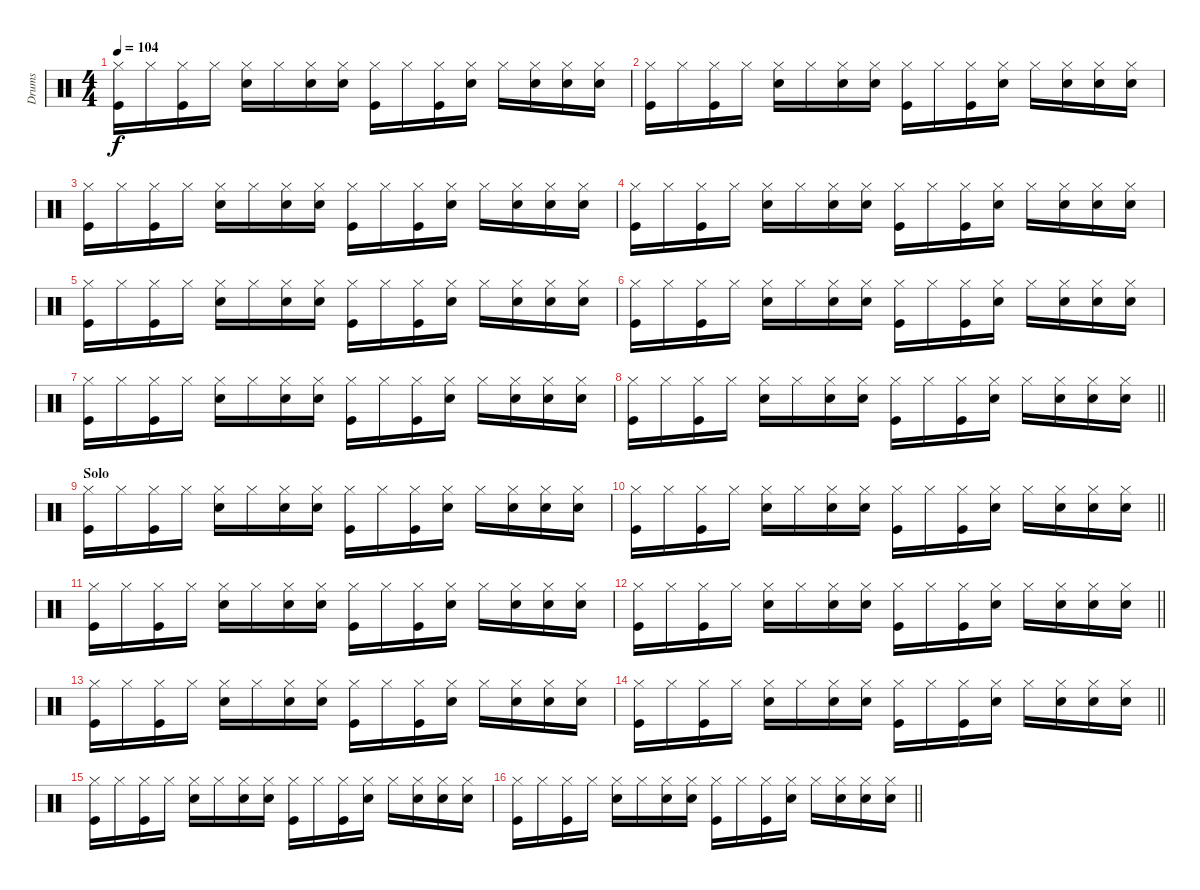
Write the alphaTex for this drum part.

\track ("Drums" "Drums") {instrument percussion}
\staff {score}
\articulation defaults
\ts (4 4)
\tempo 104
\clef neutral
\ks c
("Hi-Hat (closed)" "Kick (hit)").16{dy f} "Hi-Hat (closed)".16 ("Hi-Hat (closed)" "Kick (hit)").16 "Hi-Hat (closed)".16 ("Hi-Hat (closed)" "Electric Snare (hit)").16 "Hi-Hat (closed)".16 ("Hi-Hat (closed)" "Electric Snare (hit)").16 ("Hi-Hat (closed)" "Electric Snare (hit)").16 ("Hi-Hat (closed)" "Kick (hit)").16 "Hi-Hat (closed)".16 ("Hi-Hat (closed)" "Kick (hit)").16 ("Hi-Hat (closed)" "Electric Snare (hit)").16 "Hi-Hat (closed)".16 ("Hi-Hat (closed)" "Electric Snare (hit)").16 ("Hi-Hat (closed)" "Electric Snare (hit)").16 ("Hi-Hat (closed)" "Electric Snare (hit)").16 |
("Hi-Hat (closed)" "Kick (hit)").16 "Hi-Hat (closed)".16 ("Hi-Hat (closed)" "Kick (hit)").16 "Hi-Hat (closed)".16 ("Hi-Hat (closed)" "Electric Snare (hit)").16 "Hi-Hat (closed)".16 ("Hi-Hat (closed)" "Electric Snare (hit)").16 ("Hi-Hat (closed)" "Electric Snare (hit)").16 ("Hi-Hat (closed)" "Kick (hit)").16 "Hi-Hat (closed)".16 ("Hi-Hat (closed)" "Kick (hit)").16 ("Hi-Hat (closed)" "Electric Snare (hit)").16 "Hi-Hat (closed)".16 ("Hi-Hat (closed)" "Electric Snare (hit)").16 ("Hi-Hat (closed)" "Electric Snare (hit)").16 ("Hi-Hat (closed)" "Electric Snare (hit)").16 |
("Hi-Hat (closed)" "Kick (hit)").16 "Hi-Hat (closed)".16 ("Hi-Hat (closed)" "Kick (hit)").16 "Hi-Hat (closed)".16 ("Hi-Hat (closed)" "Electric Snare (hit)").16 "Hi-Hat (closed)".16 ("Hi-Hat (closed)" "Electric Snare (hit)").16 ("Hi-Hat (closed)" "Electric Snare (hit)").16 ("Hi-Hat (closed)" "Kick (hit)").16 "Hi-Hat (closed)".16 ("Hi-Hat (closed)" "Kick (hit)").16 ("Hi-Hat (closed)" "Electric Snare (hit)").16 "Hi-Hat (closed)".16 ("Hi-Hat (closed)" "Electric Snare (hit)").16 ("Hi-Hat (closed)" "Electric Snare (hit)").16 ("Hi-Hat (closed)" "Electric Snare (hit)").16 |
("Hi-Hat (closed)" "Kick (hit)").16 "Hi-Hat (closed)".16 ("Hi-Hat (closed)" "Kick (hit)").16 "Hi-Hat (closed)".16 ("Hi-Hat (closed)" "Electric Snare (hit)").16 "Hi-Hat (closed)".16 ("Hi-Hat (closed)" "Electric Snare (hit)").16 ("Hi-Hat (closed)" "Electric Snare (hit)").16 ("Hi-Hat (closed)" "Kick (hit)").16 "Hi-Hat (closed)".16 ("Hi-Hat (closed)" "Kick (hit)").16 ("Hi-Hat (closed)" "Electric Snare (hit)").16 "Hi-Hat (closed)".16 ("Hi-Hat (closed)" "Electric Snare (hit)").16 ("Hi-Hat (closed)" "Electric Snare (hit)").16 ("Hi-Hat (closed)" "Electric Snare (hit)").16 |
("Hi-Hat (closed)" "Kick (hit)").16 "Hi-Hat (closed)".16 ("Hi-Hat (closed)" "Kick (hit)").16 "Hi-Hat (closed)".16 ("Hi-Hat (closed)" "Electric Snare (hit)").16 "Hi-Hat (closed)".16 ("Hi-Hat (closed)" "Electric Snare (hit)").16 ("Hi-Hat (closed)" "Electric Snare (hit)").16 ("Hi-Hat (closed)" "Kick (hit)").16 "Hi-Hat (closed)".16 ("Hi-Hat (closed)" "Kick (hit)").16 ("Hi-Hat (closed)" "Electric Snare (hit)").16 "Hi-Hat (closed)".16 ("Hi-Hat (closed)" "Electric Snare (hit)").16 ("Hi-Hat (closed)" "Electric Snare (hit)").16 ("Hi-Hat (closed)" "Electric Snare (hit)").16 |
("Hi-Hat (closed)" "Kick (hit)").16 "Hi-Hat (closed)".16 ("Hi-Hat (closed)" "Kick (hit)").16 "Hi-Hat (closed)".16 ("Hi-Hat (closed)" "Electric Snare (hit)").16 "Hi-Hat (closed)".16 ("Hi-Hat (closed)" "Electric Snare (hit)").16 ("Hi-Hat (closed)" "Electric Snare (hit)").16 ("Hi-Hat (closed)" "Kick (hit)").16 "Hi-Hat (closed)".16 ("Hi-Hat (closed)" "Kick (hit)").16 ("Hi-Hat (closed)" "Electric Snare (hit)").16 "Hi-Hat (closed)".16 ("Hi-Hat (closed)" "Electric Snare (hit)").16 ("Hi-Hat (closed)" "Electric Snare (hit)").16 ("Hi-Hat (closed)" "Electric Snare (hit)").16 |
("Hi-Hat (closed)" "Kick (hit)").16 "Hi-Hat (closed)".16 ("Hi-Hat (closed)" "Kick (hit)").16 "Hi-Hat (closed)".16 ("Hi-Hat (closed)" "Electric Snare (hit)").16 "Hi-Hat (closed)".16 ("Hi-Hat (closed)" "Electric Snare (hit)").16 ("Hi-Hat (closed)" "Electric Snare (hit)").16 ("Hi-Hat (closed)" "Kick (hit)").16 "Hi-Hat (closed)".16 ("Hi-Hat (closed)" "Kick (hit)").16 ("Hi-Hat (closed)" "Electric Snare (hit)").16 "Hi-Hat (closed)".16 ("Hi-Hat (closed)" "Electric Snare (hit)").16 ("Hi-Hat (closed)" "Electric Snare (hit)").16 ("Hi-Hat (closed)" "Electric Snare (hit)").16 |
\barLineRight lightlight
("Hi-Hat (closed)" "Kick (hit)").16 "Hi-Hat (closed)".16 ("Hi-Hat (closed)" "Kick (hit)").16 "Hi-Hat (closed)".16 ("Hi-Hat (closed)" "Electric Snare (hit)").16 "Hi-Hat (closed)".16 ("Hi-Hat (closed)" "Electric Snare (hit)").16 ("Hi-Hat (closed)" "Electric Snare (hit)").16 ("Hi-Hat (closed)" "Kick (hit)").16 "Hi-Hat (closed)".16 ("Hi-Hat (closed)" "Kick (hit)").16 ("Hi-Hat (closed)" "Electric Snare (hit)").16 "Hi-Hat (closed)".16 ("Hi-Hat (closed)" "Electric Snare (hit)").16 ("Hi-Hat (closed)" "Electric Snare (hit)").16 ("Hi-Hat (closed)" "Electric Snare (hit)").16 |
\section ("" "Solo")
("Hi-Hat (closed)" "Kick (hit)").16 "Hi-Hat (closed)".16 ("Hi-Hat (closed)" "Kick (hit)").16 "Hi-Hat (closed)".16 ("Hi-Hat (closed)" "Electric Snare (hit)").16 "Hi-Hat (closed)".16 ("Hi-Hat (closed)" "Electric Snare (hit)").16 ("Hi-Hat (closed)" "Electric Snare (hit)").16 ("Hi-Hat (closed)" "Kick (hit)").16 "Hi-Hat (closed)".16 ("Hi-Hat (closed)" "Kick (hit)").16 ("Hi-Hat (closed)" "Electric Snare (hit)").16 "Hi-Hat (closed)".16 ("Hi-Hat (closed)" "Electric Snare (hit)").16 ("Hi-Hat (closed)" "Electric Snare (hit)").16 ("Hi-Hat (closed)" "Electric Snare (hit)").16 |
\barLineRight lightlight
("Hi-Hat (closed)" "Kick (hit)").16 "Hi-Hat (closed)".16 ("Hi-Hat (closed)" "Kick (hit)").16 "Hi-Hat (closed)".16 ("Hi-Hat (closed)" "Electric Snare (hit)").16 "Hi-Hat (closed)".16 ("Hi-Hat (closed)" "Electric Snare (hit)").16 ("Hi-Hat (closed)" "Electric Snare (hit)").16 ("Hi-Hat (closed)" "Kick (hit)").16 "Hi-Hat (closed)".16 ("Hi-Hat (closed)" "Kick (hit)").16 ("Hi-Hat (closed)" "Electric Snare (hit)").16 "Hi-Hat (closed)".16 ("Hi-Hat (closed)" "Electric Snare (hit)").16 ("Hi-Hat (closed)" "Electric Snare (hit)").16 ("Hi-Hat (closed)" "Electric Snare (hit)").16 |
("Hi-Hat (closed)" "Kick (hit)").16 "Hi-Hat (closed)".16 ("Hi-Hat (closed)" "Kick (hit)").16 "Hi-Hat (closed)".16 ("Hi-Hat (closed)" "Electric Snare (hit)").16 "Hi-Hat (closed)".16 ("Hi-Hat (closed)" "Electric Snare (hit)").16 ("Hi-Hat (closed)" "Electric Snare (hit)").16 ("Hi-Hat (closed)" "Kick (hit)").16 "Hi-Hat (closed)".16 ("Hi-Hat (closed)" "Kick (hit)").16 ("Hi-Hat (closed)" "Electric Snare (hit)").16 "Hi-Hat (closed)".16 ("Hi-Hat (closed)" "Electric Snare (hit)").16 ("Hi-Hat (closed)" "Electric Snare (hit)").16 ("Hi-Hat (closed)" "Electric Snare (hit)").16 |
\barLineRight lightlight
("Hi-Hat (closed)" "Kick (hit)").16 "Hi-Hat (closed)".16 ("Hi-Hat (closed)" "Kick (hit)").16 "Hi-Hat (closed)".16 ("Hi-Hat (closed)" "Electric Snare (hit)").16 "Hi-Hat (closed)".16 ("Hi-Hat (closed)" "Electric Snare (hit)").16 ("Hi-Hat (closed)" "Electric Snare (hit)").16 ("Hi-Hat (closed)" "Kick (hit)").16 "Hi-Hat (closed)".16 ("Hi-Hat (closed)" "Kick (hit)").16 ("Hi-Hat (closed)" "Electric Snare (hit)").16 "Hi-Hat (closed)".16 ("Hi-Hat (closed)" "Electric Snare (hit)").16 ("Hi-Hat (closed)" "Electric Snare (hit)").16 ("Hi-Hat (closed)" "Electric Snare (hit)").16 |
("Hi-Hat (closed)" "Kick (hit)").16 "Hi-Hat (closed)".16 ("Hi-Hat (closed)" "Kick (hit)").16 "Hi-Hat (closed)".16 ("Hi-Hat (closed)" "Electric Snare (hit)").16 "Hi-Hat (closed)".16 ("Hi-Hat (closed)" "Electric Snare (hit)").16 ("Hi-Hat (closed)" "Electric Snare (hit)").16 ("Hi-Hat (closed)" "Kick (hit)").16 "Hi-Hat (closed)".16 ("Hi-Hat (closed)" "Kick (hit)").16 ("Hi-Hat (closed)" "Electric Snare (hit)").16 "Hi-Hat (closed)".16 ("Hi-Hat (closed)" "Electric Snare (hit)").16 ("Hi-Hat (closed)" "Electric Snare (hit)").16 ("Hi-Hat (closed)" "Electric Snare (hit)").16 |
\barLineRight lightlight
("Hi-Hat (closed)" "Kick (hit)").16 "Hi-Hat (closed)".16 ("Hi-Hat (closed)" "Kick (hit)").16 "Hi-Hat (closed)".16 ("Hi-Hat (closed)" "Electric Snare (hit)").16 "Hi-Hat (closed)".16 ("Hi-Hat (closed)" "Electric Snare (hit)").16 ("Hi-Hat (closed)" "Electric Snare (hit)").16 ("Hi-Hat (closed)" "Kick (hit)").16 "Hi-Hat (closed)".16 ("Hi-Hat (closed)" "Kick (hit)").16 ("Hi-Hat (closed)" "Electric Snare (hit)").16 "Hi-Hat (closed)".16 ("Hi-Hat (closed)" "Electric Snare (hit)").16 ("Hi-Hat (closed)" "Electric Snare (hit)").16 ("Hi-Hat (closed)" "Electric Snare (hit)").16 |
("Hi-Hat (closed)" "Kick (hit)").16 "Hi-Hat (closed)".16 ("Hi-Hat (closed)" "Kick (hit)").16 "Hi-Hat (closed)".16 ("Hi-Hat (closed)" "Electric Snare (hit)").16 "Hi-Hat (closed)".16 ("Hi-Hat (closed)" "Electric Snare (hit)").16 ("Hi-Hat (closed)" "Electric Snare (hit)").16 ("Hi-Hat (closed)" "Kick (hit)").16 "Hi-Hat (closed)".16 ("Hi-Hat (closed)" "Kick (hit)").16 ("Hi-Hat (closed)" "Electric Snare (hit)").16 "Hi-Hat (closed)".16 ("Hi-Hat (closed)" "Electric Snare (hit)").16 ("Hi-Hat (closed)" "Electric Snare (hit)").16 ("Hi-Hat (closed)" "Electric Snare (hit)").16 |
\barLineRight lightlight
("Hi-Hat (closed)" "Kick (hit)").16 "Hi-Hat (closed)".16 ("Hi-Hat (closed)" "Kick (hit)").16 "Hi-Hat (closed)".16 ("Hi-Hat (closed)" "Electric Snare (hit)").16 "Hi-Hat (closed)".16 ("Hi-Hat (closed)" "Electric Snare (hit)").16 ("Hi-Hat (closed)" "Electric Snare (hit)").16 ("Hi-Hat (closed)" "Kick (hit)").16 "Hi-Hat (closed)".16 ("Hi-Hat (closed)" "Kick (hit)").16 ("Hi-Hat (closed)" "Electric Snare (hit)").16 "Hi-Hat (closed)".16 ("Hi-Hat (closed)" "Electric Snare (hit)").16 ("Hi-Hat (closed)" "Electric Snare (hit)").16 ("Hi-Hat (closed)" "Electric Snare (hit)").16
